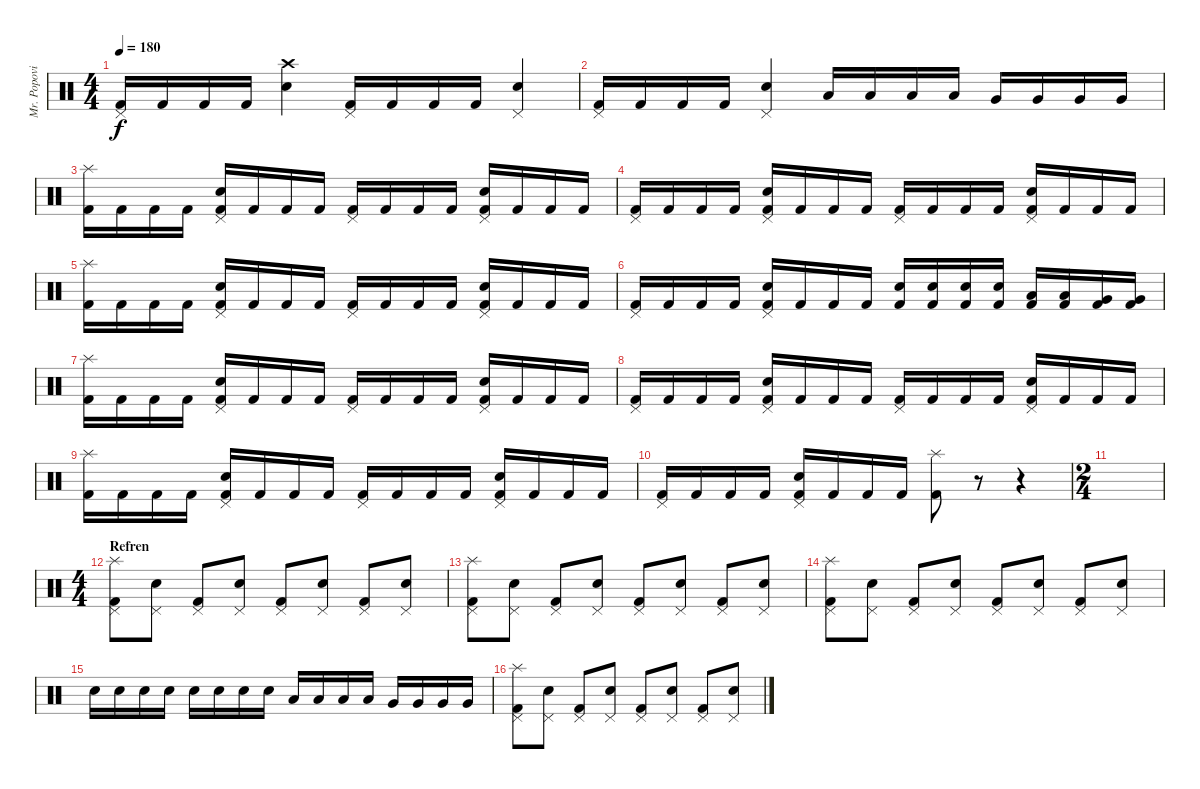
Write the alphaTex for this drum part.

\track ("Mr. Popovic" "Mr. Popovi") {instrument percussion}
\staff {score}
\articulation defaults
\ts (4 4)
\tempo 180
\clef neutral
\ks c
("Pedal Hi-Hat (hit)" "Kick (hit) 2").16{dy f} "Kick (hit) 2".16 "Kick (hit) 2".16 "Kick (hit) 2".16 ("Crash high (hit)" "Electric Snare (hit)").4 ("Pedal Hi-Hat (hit)" "Kick (hit) 2").16 "Kick (hit) 2".16 "Kick (hit) 2".16 "Kick (hit) 2".16 ("Pedal Hi-Hat (hit)" "Electric Snare (hit)").4 |
("Pedal Hi-Hat (hit)" "Kick (hit) 2").16 "Kick (hit) 2".16 "Kick (hit) 2".16 "Kick (hit) 2".16 ("Pedal Hi-Hat (hit)" "Electric Snare (hit)").4 "Low Tom (hit)".16 "Low Tom (hit)".16 "Low Tom (hit)".16 "Low Tom (hit)".16 "Very Low Tom (hit)".16 "Very Low Tom (hit)".16 "Very Low Tom (hit)".16 "Very Low Tom (hit)".16 |
("Splash (hit)" "Kick (hit) 2").16 "Kick (hit) 2".16 "Kick (hit) 2".16 "Kick (hit) 2".16 ("Pedal Hi-Hat (hit)" "Electric Snare (hit)" "Kick (hit) 2").16 "Kick (hit) 2".16 "Kick (hit) 2".16 "Kick (hit) 2".16 ("Pedal Hi-Hat (hit)" "Kick (hit) 2").16 "Kick (hit) 2".16 "Kick (hit) 2".16 "Kick (hit) 2".16 ("Pedal Hi-Hat (hit)" "Electric Snare (hit)" "Kick (hit) 2").16 "Kick (hit) 2".16 "Kick (hit) 2".16 "Kick (hit) 2".16 |
("Pedal Hi-Hat (hit)" "Kick (hit) 2").16 "Kick (hit) 2".16 "Kick (hit) 2".16 "Kick (hit) 2".16 ("Pedal Hi-Hat (hit)" "Electric Snare (hit)" "Kick (hit) 2").16 "Kick (hit) 2".16 "Kick (hit) 2".16 "Kick (hit) 2".16 ("Pedal Hi-Hat (hit)" "Kick (hit) 2").16 "Kick (hit) 2".16 "Kick (hit) 2".16 "Kick (hit) 2".16 ("Pedal Hi-Hat (hit)" "Electric Snare (hit)" "Kick (hit) 2").16 "Kick (hit) 2".16 "Kick (hit) 2".16 "Kick (hit) 2".16 |
("Splash (hit)" "Kick (hit) 2").16 "Kick (hit) 2".16 "Kick (hit) 2".16 "Kick (hit) 2".16 ("Pedal Hi-Hat (hit)" "Electric Snare (hit)" "Kick (hit) 2").16 "Kick (hit) 2".16 "Kick (hit) 2".16 "Kick (hit) 2".16 ("Pedal Hi-Hat (hit)" "Kick (hit) 2").16 "Kick (hit) 2".16 "Kick (hit) 2".16 "Kick (hit) 2".16 ("Pedal Hi-Hat (hit)" "Electric Snare (hit)" "Kick (hit) 2").16 "Kick (hit) 2".16 "Kick (hit) 2".16 "Kick (hit) 2".16 |
("Pedal Hi-Hat (hit)" "Kick (hit) 2").16 "Kick (hit) 2".16 "Kick (hit) 2".16 "Kick (hit) 2".16 ("Pedal Hi-Hat (hit)" "Electric Snare (hit)" "Kick (hit) 2").16 "Kick (hit) 2".16 "Kick (hit) 2".16 "Kick (hit) 2".16 ("Electric Snare (hit)" "Kick (hit) 2").16 ("Electric Snare (hit)" "Kick (hit) 2").16 ("Electric Snare (hit)" "Kick (hit) 2").16 ("Electric Snare (hit)" "Kick (hit) 2").16 ("Low Tom (hit)" "Kick (hit) 2").16 ("Low Tom (hit)" "Kick (hit) 2").16 ("Very Low Tom (hit)" "Kick (hit) 2").16 ("Very Low Tom (hit)" "Kick (hit) 2").16 |
("Splash (hit)" "Kick (hit) 2").16 "Kick (hit) 2".16 "Kick (hit) 2".16 "Kick (hit) 2".16 ("Pedal Hi-Hat (hit)" "Electric Snare (hit)" "Kick (hit) 2").16 "Kick (hit) 2".16 "Kick (hit) 2".16 "Kick (hit) 2".16 ("Pedal Hi-Hat (hit)" "Kick (hit) 2").16 "Kick (hit) 2".16 "Kick (hit) 2".16 "Kick (hit) 2".16 ("Pedal Hi-Hat (hit)" "Electric Snare (hit)" "Kick (hit) 2").16 "Kick (hit) 2".16 "Kick (hit) 2".16 "Kick (hit) 2".16 |
("Pedal Hi-Hat (hit)" "Kick (hit) 2").16 "Kick (hit) 2".16 "Kick (hit) 2".16 "Kick (hit) 2".16 ("Pedal Hi-Hat (hit)" "Electric Snare (hit)" "Kick (hit) 2").16 "Kick (hit) 2".16 "Kick (hit) 2".16 "Kick (hit) 2".16 ("Pedal Hi-Hat (hit)" "Kick (hit) 2").16 "Kick (hit) 2".16 "Kick (hit) 2".16 "Kick (hit) 2".16 ("Pedal Hi-Hat (hit)" "Electric Snare (hit)" "Kick (hit) 2").16 "Kick (hit) 2".16 "Kick (hit) 2".16 "Kick (hit) 2".16 |
("Splash (hit)" "Kick (hit) 2").16 "Kick (hit) 2".16 "Kick (hit) 2".16 "Kick (hit) 2".16 ("Pedal Hi-Hat (hit)" "Electric Snare (hit)" "Kick (hit) 2").16 "Kick (hit) 2".16 "Kick (hit) 2".16 "Kick (hit) 2".16 ("Pedal Hi-Hat (hit)" "Kick (hit) 2").16 "Kick (hit) 2".16 "Kick (hit) 2".16 "Kick (hit) 2".16 ("Pedal Hi-Hat (hit)" "Electric Snare (hit)" "Kick (hit) 2").16 "Kick (hit) 2".16 "Kick (hit) 2".16 "Kick (hit) 2".16 |
("Pedal Hi-Hat (hit)" "Kick (hit) 2").16 "Kick (hit) 2".16 "Kick (hit) 2".16 "Kick (hit) 2".16 ("Pedal Hi-Hat (hit)" "Electric Snare (hit)" "Kick (hit) 2").16 "Kick (hit) 2".16 "Kick (hit) 2".16 "Kick (hit) 2".16 ("Splash (hit)" "Kick (hit) 2").8 r.8 r.4 |
\ts (2 4)
|
\ts (4 4)
\section ("" "Refren")
("Splash (hit)" "Pedal Hi-Hat (hit)" "Kick (hit) 2").8 ("Pedal Hi-Hat (hit)" "Electric Snare (hit)").8 ("Pedal Hi-Hat (hit)" "Kick (hit) 2").8 ("Pedal Hi-Hat (hit)" "Electric Snare (hit)").8 ("Pedal Hi-Hat (hit)" "Kick (hit) 2").8 ("Pedal Hi-Hat (hit)" "Electric Snare (hit)").8 ("Pedal Hi-Hat (hit)" "Kick (hit) 2").8 ("Pedal Hi-Hat (hit)" "Electric Snare (hit)").8 |
("Splash (hit)" "Pedal Hi-Hat (hit)" "Kick (hit) 2").8 ("Pedal Hi-Hat (hit)" "Electric Snare (hit)").8 ("Pedal Hi-Hat (hit)" "Kick (hit) 2").8 ("Pedal Hi-Hat (hit)" "Electric Snare (hit)").8 ("Pedal Hi-Hat (hit)" "Kick (hit) 2").8 ("Pedal Hi-Hat (hit)" "Electric Snare (hit)").8 ("Pedal Hi-Hat (hit)" "Kick (hit) 2").8 ("Pedal Hi-Hat (hit)" "Electric Snare (hit)").8 |
("Splash (hit)" "Pedal Hi-Hat (hit)" "Kick (hit) 2").8 ("Pedal Hi-Hat (hit)" "Electric Snare (hit)").8 ("Pedal Hi-Hat (hit)" "Kick (hit) 2").8 ("Pedal Hi-Hat (hit)" "Electric Snare (hit)").8 ("Pedal Hi-Hat (hit)" "Kick (hit) 2").8 ("Pedal Hi-Hat (hit)" "Electric Snare (hit)").8 ("Pedal Hi-Hat (hit)" "Kick (hit) 2").8 ("Pedal Hi-Hat (hit)" "Electric Snare (hit)").8 |
"Electric Snare (hit)".16 "Electric Snare (hit)".16 "Electric Snare (hit)".16 "Electric Snare (hit)".16 "Electric Snare (hit)".16 "Electric Snare (hit)".16 "Electric Snare (hit)".16 "Electric Snare (hit)".16 "Low Tom (hit)".16 "Low Tom (hit)".16 "Low Tom (hit)".16 "Low Tom (hit)".16 "Very Low Tom (hit)".16 "Very Low Tom (hit)".16 "Very Low Tom (hit)".16 "Very Low Tom (hit)".16 |
("Splash (hit)" "Pedal Hi-Hat (hit)" "Kick (hit) 2").8 ("Pedal Hi-Hat (hit)" "Electric Snare (hit)").8 ("Pedal Hi-Hat (hit)" "Kick (hit) 2").8 ("Pedal Hi-Hat (hit)" "Electric Snare (hit)").8 ("Pedal Hi-Hat (hit)" "Kick (hit) 2").8 ("Pedal Hi-Hat (hit)" "Electric Snare (hit)").8 ("Pedal Hi-Hat (hit)" "Kick (hit) 2").8 ("Pedal Hi-Hat (hit)" "Electric Snare (hit)").8
